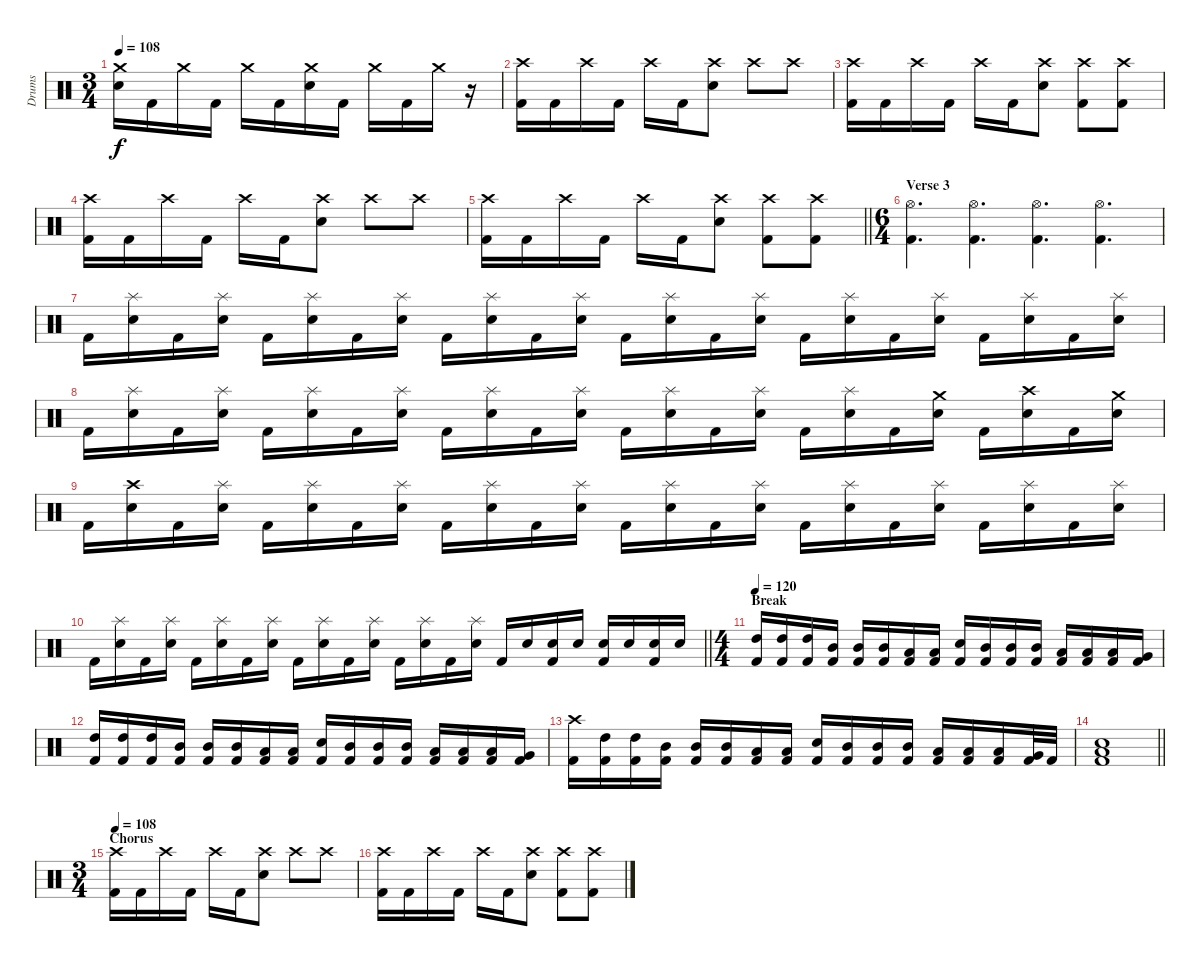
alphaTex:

\track ("Drums" "Drums") {instrument percussion}
\staff {score}
\articulation defaults
\ts (3 4)
\tempo 108
\clef neutral
\ks c
("Crash medium (hit)" "Electric Snare (hit)").16{dy f} "Kick (hit) 2".16 "Crash medium (hit)".16 "Kick (hit) 2".16 "Crash medium (hit)".16 "Kick (hit) 2".16 ("Crash medium (hit)" "Electric Snare (hit)").16 "Kick (hit) 2".16 "Crash medium (hit)".16 "Kick (hit) 2".16 "Crash medium (hit)".16 r.16 |
("Crash high (hit)" "Kick (hit) 2").16 "Kick (hit) 2".16 "Crash high (hit)".16 "Kick (hit) 2".16 "Crash high (hit)".16 "Kick (hit) 2".16 ("Crash high (hit)" "Electric Snare (hit)").8 "Crash high (hit)".8 "Crash high (hit)".8 |
("Crash high (hit)" "Kick (hit) 2").16 "Kick (hit) 2".16 "Crash high (hit)".16 "Kick (hit) 2".16 "Crash high (hit)".16 "Kick (hit) 2".16 ("Crash high (hit)" "Electric Snare (hit)").8 ("Crash high (hit)" "Kick (hit) 2").8 ("Crash high (hit)" "Kick (hit) 2").8 |
("Crash high (hit)" "Kick (hit) 2").16 "Kick (hit) 2".16 "Crash high (hit)".16 "Kick (hit) 2".16 "Crash high (hit)".16 "Kick (hit) 2".16 ("Crash high (hit)" "Electric Snare (hit)").8 "Crash high (hit)".8 "Crash high (hit)".8 |
\barLineRight lightlight
("Crash high (hit)" "Kick (hit) 2").16 "Kick (hit) 2".16 "Crash high (hit)".16 "Kick (hit) 2".16 "Crash high (hit)".16 "Kick (hit) 2".16 ("Crash high (hit)" "Electric Snare (hit)").8 ("Crash high (hit)" "Kick (hit) 2").8 ("Crash high (hit)" "Kick (hit) 2").8 |
\ts (6 4)
\section ("" "Verse 3")
("Hi-Hat (open)" "Kick (hit) 2").4{d} ("Hi-Hat (open)" "Kick (hit) 2").4{d} ("Hi-Hat (open)" "Kick (hit) 2").4{d} ("Hi-Hat (open)" "Kick (hit) 2").4{d} |
"Kick (hit) 2".16 ("Splash (hit)" "Electric Snare (hit)").16 "Kick (hit) 2".16 ("Splash (hit)" "Electric Snare (hit)").16 "Kick (hit) 2".16 ("Splash (hit)" "Electric Snare (hit)").16 "Kick (hit) 2".16 ("Splash (hit)" "Electric Snare (hit)").16 "Kick (hit) 2".16 ("Splash (hit)" "Electric Snare (hit)").16 "Kick (hit) 2".16 ("Splash (hit)" "Electric Snare (hit)").16 "Kick (hit) 2".16 ("Splash (hit)" "Electric Snare (hit)").16 "Kick (hit) 2".16 ("Splash (hit)" "Electric Snare (hit)").16 "Kick (hit) 2".16 ("Splash (hit)" "Electric Snare (hit)").16 "Kick (hit) 2".16 ("Splash (hit)" "Electric Snare (hit)").16 "Kick (hit) 2".16 ("Splash (hit)" "Electric Snare (hit)").16 "Kick (hit) 2".16 ("Splash (hit)" "Electric Snare (hit)").16 |
"Kick (hit) 2".16 ("Splash (hit)" "Electric Snare (hit)").16 "Kick (hit) 2".16 ("Splash (hit)" "Electric Snare (hit)").16 "Kick (hit) 2".16 ("Splash (hit)" "Electric Snare (hit)").16 "Kick (hit) 2".16 ("Splash (hit)" "Electric Snare (hit)").16 "Kick (hit) 2".16 ("Splash (hit)" "Electric Snare (hit)").16 "Kick (hit) 2".16 ("Splash (hit)" "Electric Snare (hit)").16 "Kick (hit) 2".16 ("Splash (hit)" "Electric Snare (hit)").16 "Kick (hit) 2".16 ("Splash (hit)" "Electric Snare (hit)").16 "Kick (hit) 2".16 ("Splash (hit)" "Electric Snare (hit)").16 "Kick (hit) 2".16 ("Crash medium (hit)" "Electric Snare (hit)").16 "Kick (hit) 2".16 ("Crash high (hit)" "Electric Snare (hit)").16 "Kick (hit) 2".16 ("Crash medium (hit)" "Electric Snare (hit)").16 |
"Kick (hit) 2".16 ("Crash high (hit)" "Electric Snare (hit)").16 "Kick (hit) 2".16 ("Splash (hit)" "Electric Snare (hit)").16 "Kick (hit) 2".16 ("Splash (hit)" "Electric Snare (hit)").16 "Kick (hit) 2".16 ("Splash (hit)" "Electric Snare (hit)").16 "Kick (hit) 2".16 ("Splash (hit)" "Electric Snare (hit)").16 "Kick (hit) 2".16 ("Splash (hit)" "Electric Snare (hit)").16 "Kick (hit) 2".16 ("Splash (hit)" "Electric Snare (hit)").16 "Kick (hit) 2".16 ("Splash (hit)" "Electric Snare (hit)").16 "Kick (hit) 2".16 ("Splash (hit)" "Electric Snare (hit)").16 "Kick (hit) 2".16 ("Splash (hit)" "Electric Snare (hit)").16 "Kick (hit) 2".16 ("Splash (hit)" "Electric Snare (hit)").16 "Kick (hit) 2".16 ("Splash (hit)" "Electric Snare (hit)").16 |
\barLineRight lightlight "Kick (hit) 2".16
("Splash (hit)" "Electric Snare (hit)").16 "Kick (hit) 2".16 ("Splash (hit)" "Electric Snare (hit)").16 "Kick (hit) 2".16 ("Splash (hit)" "Electric Snare (hit)").16 "Kick (hit) 2".16 ("Splash (hit)" "Electric Snare (hit)").16 "Kick (hit) 2".16 ("Splash (hit)" "Electric Snare (hit)").16 "Kick (hit) 2".16 ("Splash (hit)" "Electric Snare (hit)").16 "Kick (hit) 2".16 ("Splash (hit)" "Electric Snare (hit)").16 "Kick (hit) 2".16 ("Splash (hit)" "Electric Snare (hit)").16 "Kick (hit) 2".16 "Electric Snare (hit)".16 ("Electric Snare (hit)" "Kick (hit) 2").16 "Electric Snare (hit)".16 ("Electric Snare (hit)" "Kick (hit) 2").16 "Electric Snare (hit)".16 ("Electric Snare (hit)" "Kick (hit) 2").16 "Electric Snare (hit)".16 |
\ts (4 4)
\section ("" "Break")
\tempo 120
("High Tom (hit)" "Kick (hit) 2").16 ("High Tom (hit)" "Kick (hit) 2").16 ("High Tom (hit)" "Kick (hit) 2").16 ("Mid Tom (hit)" "Kick (hit) 2").16 ("Mid Tom (hit)" "Kick (hit) 2").16 ("Mid Tom (hit)" "Kick (hit) 2").16 ("Low Tom (hit)" "Kick (hit) 2").16 ("Low Tom (hit)" "Kick (hit) 2").16 ("Electric Snare (hit)" "Kick (hit) 2").16 ("Mid Tom (hit)" "Kick (hit) 2").16 ("Mid Tom (hit)" "Kick (hit) 2").16 ("Mid Tom (hit)" "Kick (hit) 2").16 ("Low Tom (hit)" "Kick (hit) 2").16 ("Low Tom (hit)" "Kick (hit) 2").16 ("Low Tom (hit)" "Kick (hit) 2").16 ("Very Low Tom (hit)" "Kick (hit) 2").16 |
("High Tom (hit)" "Kick (hit) 2").16 ("High Tom (hit)" "Kick (hit) 2").16 ("High Tom (hit)" "Kick (hit) 2").16 ("Mid Tom (hit)" "Kick (hit) 2").16 ("Mid Tom (hit)" "Kick (hit) 2").16 ("Mid Tom (hit)" "Kick (hit) 2").16 ("Low Tom (hit)" "Kick (hit) 2").16 ("Low Tom (hit)" "Kick (hit) 2").16 ("Electric Snare (hit)" "Kick (hit) 2").16 ("Mid Tom (hit)" "Kick (hit) 2").16 ("Mid Tom (hit)" "Kick (hit) 2").16 ("Mid Tom (hit)" "Kick (hit) 2").16 ("Low Tom (hit)" "Kick (hit) 2").16 ("Low Tom (hit)" "Kick (hit) 2").16 ("Low Tom (hit)" "Kick (hit) 2").16 ("Very Low Tom (hit)" "Kick (hit) 2").16 |
("Crash high (hit)" "Kick (hit) 2").16 ("High Tom (hit)" "Kick (hit) 2").16 ("High Tom (hit)" "Kick (hit) 2").16 ("Mid Tom (hit)" "Kick (hit) 2").16 ("Mid Tom (hit)" "Kick (hit) 2").16 ("Mid Tom (hit)" "Kick (hit) 2").16 ("Low Tom (hit)" "Kick (hit) 2").16 ("Low Tom (hit)" "Kick (hit) 2").16 ("Electric Snare (hit)" "Kick (hit) 2").16 ("Mid Tom (hit)" "Kick (hit) 2").16 ("Mid Tom (hit)" "Kick (hit) 2").16 ("Mid Tom (hit)" "Kick (hit) 2").16 ("Low Tom (hit)" "Kick (hit) 2").16 ("Low Tom (hit)" "Kick (hit) 2").16 ("Low Tom (hit)" "Kick (hit) 2").16 ("Very Low Tom (hit)" "Kick (hit) 2").32 "Kick (hit) 2".32 |
\barLineRight lightlight
("Low Floor Tom (hit)" "Electric Snare (hit)" "Kick (hit) 2").1 |
\ts (3 4)
\section ("" "Chorus")
\tempo 108
("Crash high (hit)" "Kick (hit) 2").16 "Kick (hit) 2".16 "Crash high (hit)".16 "Kick (hit) 2".16 "Crash high (hit)".16 "Kick (hit) 2".16 ("Crash high (hit)" "Electric Snare (hit)").8 "Crash high (hit)".8 "Crash high (hit)".8 |
("Crash high (hit)" "Kick (hit) 2").16 "Kick (hit) 2".16 "Crash high (hit)".16 "Kick (hit) 2".16 "Crash high (hit)".16 "Kick (hit) 2".16 ("Crash high (hit)" "Electric Snare (hit)").8 ("Crash high (hit)" "Kick (hit) 2").8 ("Crash high (hit)" "Kick (hit) 2").8
